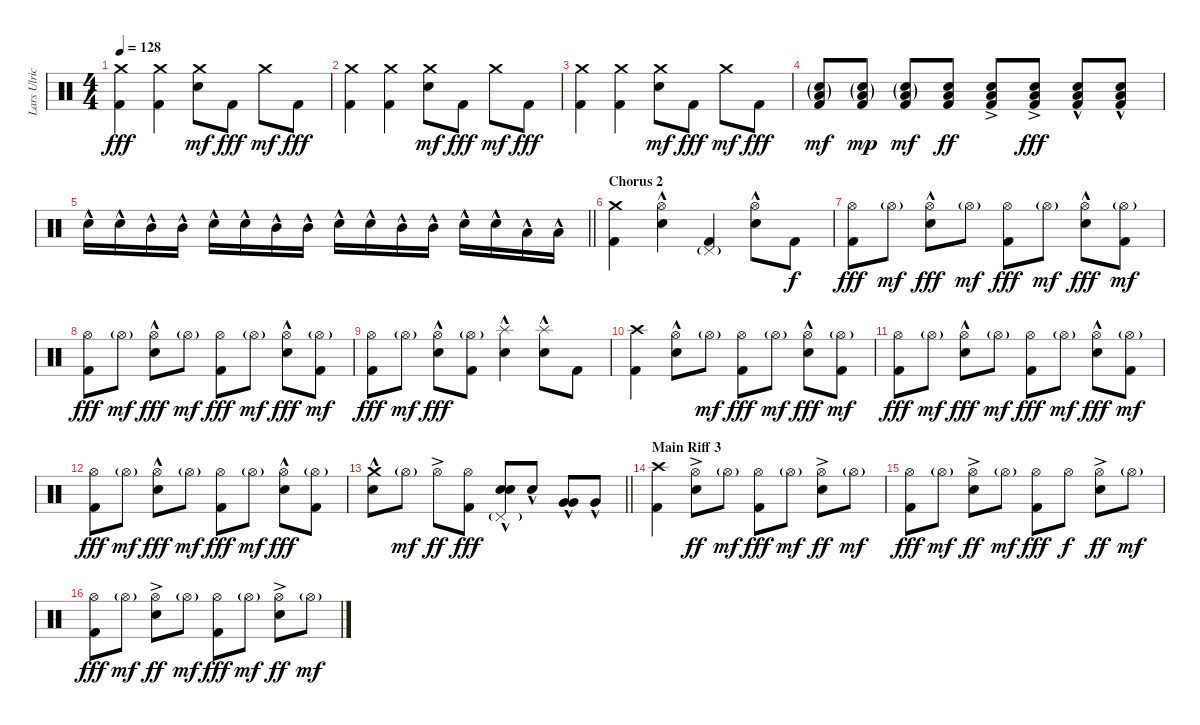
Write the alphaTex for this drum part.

\track ("Lars Ulrich (Drums)" "Lars Ulric") {instrument percussion}
\staff {score}
\articulation defaults
\ts (4 4)
\tempo 128
\clef neutral
\ks c
("Crash medium (hit)" "Kick (hit) 2").4{dy fff} ("Crash medium (hit)" "Kick (hit) 2").4 ("Crash medium (hit)" "Electric Snare (hit)").8{dy mf} "Kick (hit) 2".8{dy fff} "Crash medium (hit)".8{dy mf} "Kick (hit) 2".8{dy fff} |
("Crash medium (hit)" "Kick (hit) 2").4 ("Crash medium (hit)" "Kick (hit) 2").4 ("Crash medium (hit)" "Electric Snare (hit)").8{dy mf} "Kick (hit) 2".8{dy fff} "Crash medium (hit)".8{dy mf} "Kick (hit) 2".8{dy fff} |
("Crash medium (hit)" "Kick (hit) 2").4 ("Crash medium (hit)" "Kick (hit) 2").4 ("Crash medium (hit)" "Electric Snare (hit)").8{dy mf} "Kick (hit) 2".8{dy fff} "Crash medium (hit)".8{dy mf} "Kick (hit) 2".8{dy fff} |
("Low Tom (hit)"{g} "Electric Snare (hit)"{g} "Kick (hit) 2").8{dy mf} ("Low Tom (hit)"{g} "Electric Snare (hit)"{g} "Kick (hit) 2").8{dy mp} ("Low Tom (hit)"{g} "Electric Snare (hit)"{g} "Kick (hit) 2").8{dy mf} ("Low Tom (hit)" "Electric Snare (hit)" "Kick (hit) 2").8{dy ff} ("Low Tom (hit)"{ac} "Electric Snare (hit)"{ac} "Kick (hit) 2").8 ("Low Tom (hit)"{ac} "Electric Snare (hit)"{ac} "Kick (hit) 2").8{dy fff} ("Low Tom (hit)"{hac} "Electric Snare (hit)"{hac} "Kick (hit) 2").8 ("Low Tom (hit)"{hac} "Electric Snare (hit)"{hac} "Kick (hit) 2").8 |
\barLineRight lightlight "Electric Snare (hit)"{hac}.16 "Electric Snare (hit)"{hac}.16 "Mid Tom (hit)"{hac}.16 "Mid Tom (hit)"{hac}.16 "Electric Snare (hit)"{hac}.16 "Electric Snare (hit)"{hac}.16 "Mid Tom (hit)"{hac}.16 "Mid Tom (hit)"{hac}.16 "Electric Snare (hit)"{hac}.16 "Electric Snare (hit)"{hac}.16 "Mid Tom (hit)"{hac}.16 "Mid Tom (hit)"{hac}.16 "Electric Snare (hit)"{hac}.16 "Electric Snare (hit)"{hac}.16 "Low Tom (hit)"{hac}.16 "Low Tom (hit)"{hac}.16
|
\section ("" "Chorus 2")
("Crash medium (hit)" "Kick (hit) 2").4 ("Hi-Hat (open)"{hac} "Electric Snare (hit)"{hac}).4 ("Pedal Hi-Hat (hit)"{g} "Kick (hit) 2").4 ("Hi-Hat (open)"{hac} "Electric Snare (hit)"{hac}).8 "Kick (hit) 2".8{dy f} |
("Hi-Hat (open)" "Kick (hit) 2").8{dy fff} "Hi-Hat (open)"{g}.8{dy mf} ("Hi-Hat (open)" "Electric Snare (hit)"{hac}).8{dy fff} "Hi-Hat (open)"{g}.8{dy mf} ("Hi-Hat (open)" "Kick (hit) 2").8{dy fff} "Hi-Hat (open)"{g}.8{dy mf} ("Hi-Hat (open)" "Electric Snare (hit)"{hac}).8{dy fff} ("Hi-Hat (open)"{g} "Kick (hit) 2").8{dy mf} |
("Hi-Hat (open)" "Kick (hit) 2").8{dy fff} "Hi-Hat (open)"{g}.8{dy mf} ("Hi-Hat (open)" "Electric Snare (hit)"{hac}).8{dy fff} "Hi-Hat (open)"{g}.8{dy mf} ("Hi-Hat (open)" "Kick (hit) 2").8{dy fff} "Hi-Hat (open)"{g}.8{dy mf} ("Hi-Hat (open)" "Electric Snare (hit)"{hac}).8{dy fff} ("Hi-Hat (open)"{g} "Kick (hit) 2").8{dy mf} |
("Hi-Hat (open)" "Kick (hit) 2").8{dy fff} "Hi-Hat (open)"{g}.8{dy mf} ("Hi-Hat (open)" "Electric Snare (hit)"{hac}).8{dy fff} ("Hi-Hat (open)"{g} "Kick (hit) 2").8 ("Splash (hit)" "Electric Snare (hit)"{hac}).4 ("Splash (hit)" "Electric Snare (hit)"{hac}).8 "Kick (hit) 2".8 |
("Crash high (hit)" "Kick (hit) 2").4 ("Hi-Hat (open)" "Electric Snare (hit)"{hac}).8 "Hi-Hat (open)"{g}.8{dy mf} ("Hi-Hat (open)" "Kick (hit) 2").8{dy fff} "Hi-Hat (open)"{g}.8{dy mf} ("Hi-Hat (open)" "Electric Snare (hit)"{hac}).8{dy fff} ("Hi-Hat (open)"{g} "Kick (hit) 2").8{dy mf} |
("Hi-Hat (open)" "Kick (hit) 2").8{dy fff} "Hi-Hat (open)"{g}.8{dy mf} ("Hi-Hat (open)" "Electric Snare (hit)"{hac}).8{dy fff} "Hi-Hat (open)"{g}.8{dy mf} ("Hi-Hat (open)" "Kick (hit) 2").8{dy fff} "Hi-Hat (open)"{g}.8{dy mf} ("Hi-Hat (open)" "Electric Snare (hit)"{hac}).8{dy fff} ("Hi-Hat (open)"{g} "Kick (hit) 2").8{dy mf} |
("Hi-Hat (open)" "Kick (hit) 2").8{dy fff} "Hi-Hat (open)"{g}.8{dy mf} ("Hi-Hat (open)" "Electric Snare (hit)"{hac}).8{dy fff} "Hi-Hat (open)"{g}.8{dy mf} ("Hi-Hat (open)" "Kick (hit) 2").8{dy fff} "Hi-Hat (open)"{g}.8{dy mf} ("Hi-Hat (open)" "Electric Snare (hit)"{hac}).8{dy fff} ("Hi-Hat (open)"{g} "Kick (hit) 2").8 |
\barLineRight lightlight
("Crash medium (hit)" "Electric Snare (hit)"{hac}).8 "Hi-Hat (open)"{g}.8{dy mf} "Hi-Hat (open)"{ac}.8{dy ff} ("Hi-Hat (open)" "Kick (hit) 2").8{dy fff} ("Pedal Hi-Hat (hit)"{g} "Electric Snare (hit)"{hac} "Electric Snare (hit)"{hac}).8{bd 60} "Electric Snare (hit)"{hac}.8 ("Very Low Tom (hit)"{hac} "Very Low Tom (hit)"{hac}).8{bu 60} "Very Low Tom (hit)"{hac}.8 |
\section ("" "Main Riff 3")
("Crash high (hit)" "Kick (hit) 2").4 ("Hi-Hat (open)"{ac} "Electric Snare (hit)"{ac}).8{dy ff} "Hi-Hat (open)"{g}.8{dy mf} ("Hi-Hat (open)" "Kick (hit) 2").8{dy fff} "Hi-Hat (open)"{g}.8{dy mf} ("Hi-Hat (open)"{ac} "Electric Snare (hit)"{ac}).8{dy ff} "Hi-Hat (open)"{g}.8{dy mf} |
("Hi-Hat (open)" "Kick (hit) 2").8{dy fff} "Hi-Hat (open)"{g}.8{dy mf} ("Hi-Hat (open)"{ac} "Electric Snare (hit)"{ac}).8{dy ff} "Hi-Hat (open)"{g}.8{dy mf} ("Hi-Hat (open)" "Kick (hit) 2").8{dy fff} "Hi-Hat (open)".8{dy f} ("Hi-Hat (open)"{ac} "Electric Snare (hit)"{ac}).8{dy ff} "Hi-Hat (open)"{g}.8{dy mf} |
("Hi-Hat (open)" "Kick (hit) 2").8{dy fff} "Hi-Hat (open)"{g}.8{dy mf} ("Hi-Hat (open)"{ac} "Electric Snare (hit)"{ac}).8{dy ff} "Hi-Hat (open)"{g}.8{dy mf} ("Hi-Hat (open)" "Kick (hit) 2").8{dy fff} "Hi-Hat (open)"{g}.8{dy mf} ("Hi-Hat (open)"{ac} "Electric Snare (hit)"{ac}).8{dy ff} "Hi-Hat (open)"{g}.8{dy mf}
